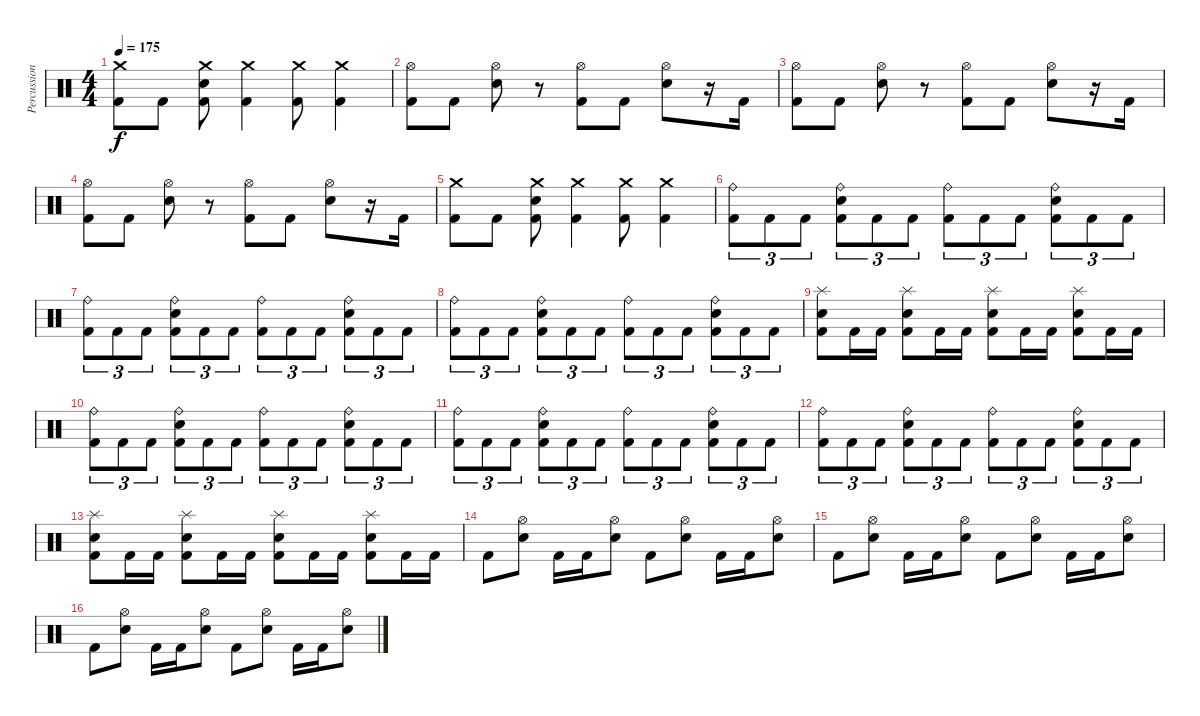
\track ("Percussion" "Percussion") {instrument percussion}
\staff {score}
\articulation defaults
\ts (4 4)
\tempo 175
\clef neutral
\ks c
("Crash medium (hit)" "Kick (hit) 2").8{dy f} "Kick (hit) 2".8 ("Crash medium (hit)" "Electric Snare (hit)" "Kick (hit) 2").8 ("Crash medium (hit)" "Kick (hit) 2").4 ("Crash medium (hit)" "Kick (hit) 2").8 ("Crash medium (hit)" "Kick (hit) 2").4 |
("Hi-Hat (open)" "Kick (hit) 2").8 "Kick (hit) 2".8 ("Hi-Hat (open)" "Electric Snare (hit)").8 r.8 ("Hi-Hat (open)" "Kick (hit) 2").8 "Kick (hit) 2".8 ("Hi-Hat (open)" "Electric Snare (hit)").8 r.16 "Kick (hit) 2".16 |
("Hi-Hat (open)" "Kick (hit) 2").8 "Kick (hit) 2".8 ("Hi-Hat (open)" "Electric Snare (hit)").8 r.8 ("Hi-Hat (open)" "Kick (hit) 2").8 "Kick (hit) 2".8 ("Hi-Hat (open)" "Electric Snare (hit)").8 r.16 "Kick (hit) 2".16 |
("Hi-Hat (open)" "Kick (hit) 2").8 "Kick (hit) 2".8 ("Hi-Hat (open)" "Electric Snare (hit)").8 r.8 ("Hi-Hat (open)" "Kick (hit) 2").8 "Kick (hit) 2".8 ("Hi-Hat (open)" "Electric Snare (hit)").8 r.16 "Kick (hit) 2".16 |
("Crash medium (hit)" "Kick (hit) 2").8 "Kick (hit) 2".8 ("Crash medium (hit)" "Electric Snare (hit)" "Kick (hit) 2").8 ("Crash medium (hit)" "Kick (hit) 2").4 ("Crash medium (hit)" "Kick (hit) 2").8 ("Crash medium (hit)" "Kick (hit) 2").4 |
("Ride (bell)" "Kick (hit) 2").8{tu (3 2)} "Kick (hit) 2".8{tu (3 2)} "Kick (hit) 2".8{tu (3 2)} ("Ride (bell)" "Electric Snare (hit)" "Kick (hit) 2").8{tu (3 2)} "Kick (hit) 2".8{tu (3 2)} "Kick (hit) 2".8{tu (3 2)} ("Ride (bell)" "Kick (hit) 2").8{tu (3 2)} "Kick (hit) 2".8{tu (3 2)} "Kick (hit) 2".8{tu (3 2)} ("Ride (bell)" "Electric Snare (hit)" "Kick (hit) 2").8{tu (3 2)} "Kick (hit) 2".8{tu (3 2)} "Kick (hit) 2".8{tu (3 2)} |
("Ride (bell)" "Kick (hit) 2").8{tu (3 2)} "Kick (hit) 2".8{tu (3 2)} "Kick (hit) 2".8{tu (3 2)} ("Ride (bell)" "Electric Snare (hit)" "Kick (hit) 2").8{tu (3 2)} "Kick (hit) 2".8{tu (3 2)} "Kick (hit) 2".8{tu (3 2)} ("Ride (bell)" "Kick (hit) 2").8{tu (3 2)} "Kick (hit) 2".8{tu (3 2)} "Kick (hit) 2".8{tu (3 2)} ("Ride (bell)" "Electric Snare (hit)" "Kick (hit) 2").8{tu (3 2)} "Kick (hit) 2".8{tu (3 2)} "Kick (hit) 2".8{tu (3 2)} |
("Ride (bell)" "Kick (hit) 2").8{tu (3 2)} "Kick (hit) 2".8{tu (3 2)} "Kick (hit) 2".8{tu (3 2)} ("Ride (bell)" "Electric Snare (hit)" "Kick (hit) 2").8{tu (3 2)} "Kick (hit) 2".8{tu (3 2)} "Kick (hit) 2".8{tu (3 2)} ("Ride (bell)" "Kick (hit) 2").8{tu (3 2)} "Kick (hit) 2".8{tu (3 2)} "Kick (hit) 2".8{tu (3 2)} ("Ride (bell)" "Electric Snare (hit)" "Kick (hit) 2").8{tu (3 2)} "Kick (hit) 2".8{tu (3 2)} "Kick (hit) 2".8{tu (3 2)} |
("Splash (hit)" "Electric Snare (hit)" "Kick (hit) 2").8 "Kick (hit) 2".16 "Kick (hit) 2".16 ("Splash (hit)" "Electric Snare (hit)" "Kick (hit) 2").8 "Kick (hit) 2".16 "Kick (hit) 2".16 ("Splash (hit)" "Electric Snare (hit)" "Kick (hit) 2").8 "Kick (hit) 2".16 "Kick (hit) 2".16 ("Splash (hit)" "Electric Snare (hit)" "Kick (hit) 2").8 "Kick (hit) 2".16 "Kick (hit) 2".16 |
("Ride (bell)" "Kick (hit) 2").8{tu (3 2)} "Kick (hit) 2".8{tu (3 2)} "Kick (hit) 2".8{tu (3 2)} ("Ride (bell)" "Electric Snare (hit)" "Kick (hit) 2").8{tu (3 2)} "Kick (hit) 2".8{tu (3 2)} "Kick (hit) 2".8{tu (3 2)} ("Ride (bell)" "Kick (hit) 2").8{tu (3 2)} "Kick (hit) 2".8{tu (3 2)} "Kick (hit) 2".8{tu (3 2)} ("Ride (bell)" "Electric Snare (hit)" "Kick (hit) 2").8{tu (3 2)} "Kick (hit) 2".8{tu (3 2)} "Kick (hit) 2".8{tu (3 2)} |
("Ride (bell)" "Kick (hit) 2").8{tu (3 2)} "Kick (hit) 2".8{tu (3 2)} "Kick (hit) 2".8{tu (3 2)} ("Ride (bell)" "Electric Snare (hit)" "Kick (hit) 2").8{tu (3 2)} "Kick (hit) 2".8{tu (3 2)} "Kick (hit) 2".8{tu (3 2)} ("Ride (bell)" "Kick (hit) 2").8{tu (3 2)} "Kick (hit) 2".8{tu (3 2)} "Kick (hit) 2".8{tu (3 2)} ("Ride (bell)" "Electric Snare (hit)" "Kick (hit) 2").8{tu (3 2)} "Kick (hit) 2".8{tu (3 2)} "Kick (hit) 2".8{tu (3 2)} |
("Ride (bell)" "Kick (hit) 2").8{tu (3 2)} "Kick (hit) 2".8{tu (3 2)} "Kick (hit) 2".8{tu (3 2)} ("Ride (bell)" "Electric Snare (hit)" "Kick (hit) 2").8{tu (3 2)} "Kick (hit) 2".8{tu (3 2)} "Kick (hit) 2".8{tu (3 2)} ("Ride (bell)" "Kick (hit) 2").8{tu (3 2)} "Kick (hit) 2".8{tu (3 2)} "Kick (hit) 2".8{tu (3 2)} ("Ride (bell)" "Electric Snare (hit)" "Kick (hit) 2").8{tu (3 2)} "Kick (hit) 2".8{tu (3 2)} "Kick (hit) 2".8{tu (3 2)} |
("Splash (hit)" "Electric Snare (hit)" "Kick (hit) 2").8 "Kick (hit) 2".16 "Kick (hit) 2".16 ("Splash (hit)" "Electric Snare (hit)" "Kick (hit) 2").8 "Kick (hit) 2".16 "Kick (hit) 2".16 ("Splash (hit)" "Electric Snare (hit)" "Kick (hit) 2").8 "Kick (hit) 2".16 "Kick (hit) 2".16 ("Splash (hit)" "Electric Snare (hit)" "Kick (hit) 2").8 "Kick (hit) 2".16 "Kick (hit) 2".16 |
"Kick (hit) 2".8 ("Hi-Hat (open)" "Electric Snare (hit)").8 "Kick (hit) 2".16 "Kick (hit) 2".16 ("Hi-Hat (open)" "Electric Snare (hit)").8 "Kick (hit) 2".8 ("Hi-Hat (open)" "Electric Snare (hit)").8 "Kick (hit) 2".16 "Kick (hit) 2".16 ("Hi-Hat (open)" "Electric Snare (hit)").8 |
"Kick (hit) 2".8 ("Hi-Hat (open)" "Electric Snare (hit)").8 "Kick (hit) 2".16 "Kick (hit) 2".16 ("Hi-Hat (open)" "Electric Snare (hit)").8 "Kick (hit) 2".8 ("Hi-Hat (open)" "Electric Snare (hit)").8 "Kick (hit) 2".16 "Kick (hit) 2".16 ("Hi-Hat (open)" "Electric Snare (hit)").8 |
"Kick (hit) 2".8 ("Hi-Hat (open)" "Electric Snare (hit)").8 "Kick (hit) 2".16 "Kick (hit) 2".16 ("Hi-Hat (open)" "Electric Snare (hit)").8 "Kick (hit) 2".8 ("Hi-Hat (open)" "Electric Snare (hit)").8 "Kick (hit) 2".16 "Kick (hit) 2".16 ("Hi-Hat (open)" "Electric Snare (hit)").8
